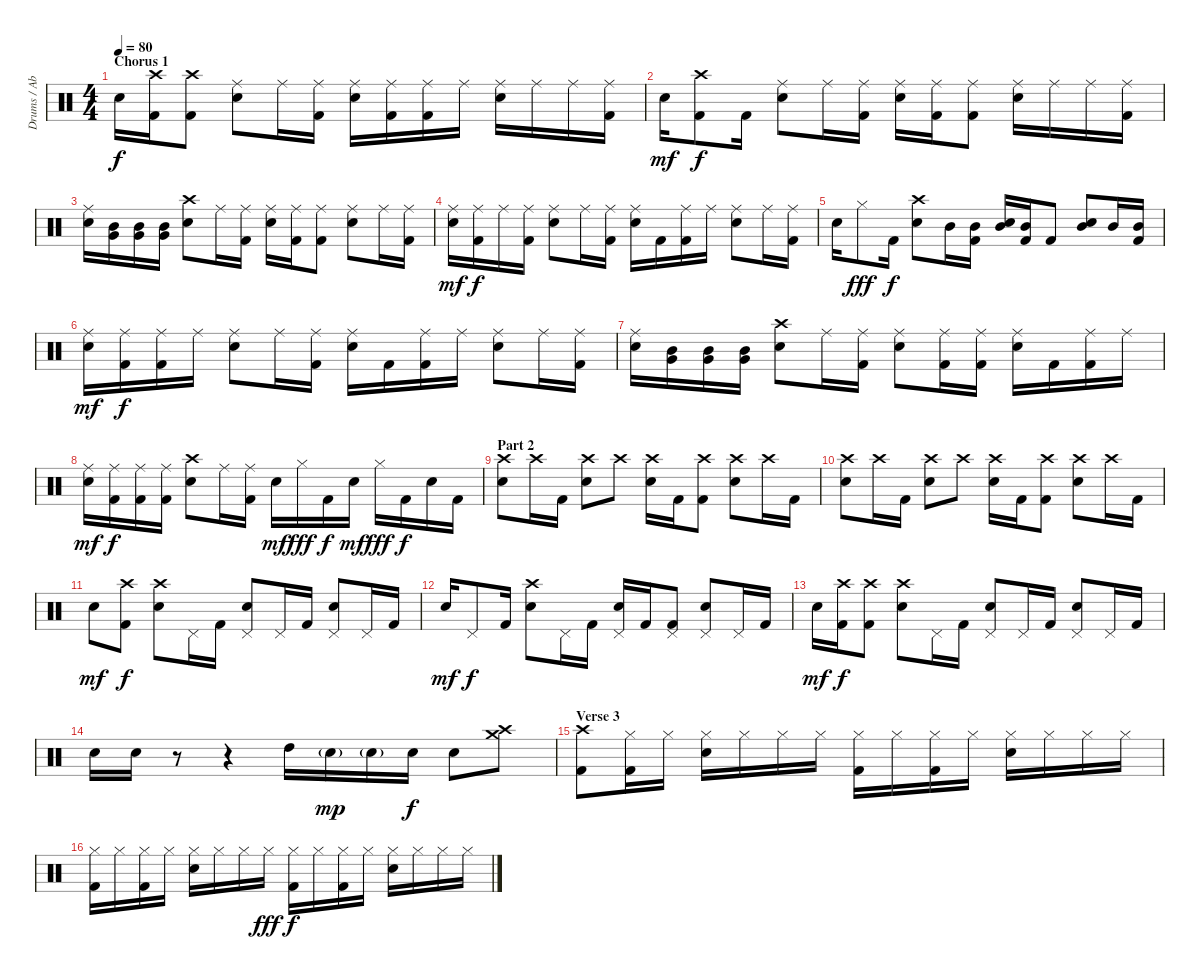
\track ("Drums / Abe Cunningham" "Drums / Ab") {instrument percussion}
\staff {score}
\articulation defaults
\ts (4 4)
\section ("" "Chorus 1")
\tempo 80
\clef neutral
\ks c "Electric Snare (hit)".16{dy f}
("Crash high (hit)" "Kick (hit) 2").16 ("Crash high (hit)" "Kick (hit) 2").8 ("Ride (middle)" "Electric Snare (hit)").8 "Ride (middle)".16 ("Ride (middle)" "Kick (hit) 2").16 ("Ride (middle)" "Electric Snare (hit)").16 ("Ride (middle)" "Kick (hit) 2").16 ("Ride (middle)" "Kick (hit) 2").16 "Ride (middle)".16 ("Ride (middle)" "Electric Snare (hit)").16 "Ride (middle)".16 "Ride (middle)".16 ("Ride (middle)" "Kick (hit) 2").16 |
"Electric Snare (hit)".16{dy mf} ("Crash high (hit)" "Kick (hit) 2").8{dy f} "Kick (hit) 2".16 ("Ride (middle)" "Electric Snare (hit)").8 "Ride (middle)".16 ("Ride (middle)" "Kick (hit) 2").16 ("Ride (middle)" "Electric Snare (hit)").16 ("Ride (middle)" "Kick (hit) 2").16 ("Ride (middle)" "Kick (hit) 2").8 ("Ride (middle)" "Electric Snare (hit)").16 "Ride (middle)".16 "Ride (middle)".16 ("Ride (middle)" "Kick (hit) 2").16 |
("Ride (middle)" "Electric Snare (hit)").16 ("Mid Tom (hit)" "Very Low Tom (hit)").16 ("Mid Tom (hit)" "Very Low Tom (hit)").16 ("Mid Tom (hit)" "Very Low Tom (hit)").16 ("Crash high (hit)" "Electric Snare (hit)").8 "Ride (middle)".16 ("Ride (middle)" "Kick (hit) 2").16 ("Ride (middle)" "Electric Snare (hit)").16 ("Ride (middle)" "Kick (hit) 2").16 ("Ride (middle)" "Kick (hit) 2").8 ("Ride (middle)" "Electric Snare (hit)").8 "Ride (middle)".16 ("Ride (middle)" "Kick (hit) 2").16 |
("Ride (middle)" "Electric Snare (hit)").16{dy mf} ("Ride (middle)" "Kick (hit) 2").16{dy f} "Ride (middle)".16 ("Ride (middle)" "Kick (hit) 2").16 ("Ride (middle)" "Electric Snare (hit)").8 "Ride (middle)".16 ("Ride (middle)" "Kick (hit) 2").16 ("Ride (middle)" "Electric Snare (hit)").16 "Kick (hit) 2".16 ("Ride (middle)" "Kick (hit) 2").16 "Ride (middle)".16 ("Ride (middle)" "Electric Snare (hit)").8 "Ride (middle)".16 ("Ride (middle)" "Kick (hit) 2").16 |
"Electric Snare (hit)".16 "Hi-Hat (closed)".8{dy fff} "Kick (hit) 2".16{dy f} ("Crash high (hit)" "Electric Snare (hit)").8 "Mid Tom (hit)".16 ("Mid Tom (hit)" "Kick (hit) 2").16 ("Electric Snare (hit)" "Mid Tom (hit)").16 ("Mid Tom (hit)" "Kick (hit) 2").16 "Kick (hit) 2".8 ("Electric Snare (hit)" "Mid Tom (hit)").8 "Mid Tom (hit)".16 ("Mid Tom (hit)" "Kick (hit) 2").16 |
("Ride (middle)" "Electric Snare (hit)").16{dy mf} ("Ride (middle)" "Kick (hit) 2").16{dy f} ("Ride (middle)" "Kick (hit) 2").16 "Ride (middle)".16 ("Ride (middle)" "Electric Snare (hit)").8 "Ride (middle)".16 ("Ride (middle)" "Kick (hit) 2").16 ("Ride (middle)" "Electric Snare (hit)").16 "Kick (hit) 2".16 ("Ride (middle)" "Kick (hit) 2").16 "Ride (middle)".16 ("Ride (middle)" "Electric Snare (hit)").8 "Ride (middle)".16 ("Ride (middle)" "Kick (hit) 2").16 |
("Ride (middle)" "Electric Snare (hit)").16 ("Mid Tom (hit)" "Very Low Tom (hit)").16 ("Mid Tom (hit)" "Very Low Tom (hit)").16 ("Mid Tom (hit)" "Very Low Tom (hit)").16 ("Crash high (hit)" "Electric Snare (hit)").8 "Ride (middle)".16 ("Ride (middle)" "Kick (hit) 2").16 ("Ride (middle)" "Electric Snare (hit)").8 ("Ride (middle)" "Kick (hit) 2").16 ("Ride (middle)" "Kick (hit) 2").16 ("Ride (middle)" "Electric Snare (hit)").16 "Kick (hit) 2".16 ("Ride (middle)" "Kick (hit) 2").16 "Ride (middle)".16 |
("Ride (middle)" "Electric Snare (hit)").16{dy mf} ("Ride (middle)" "Kick (hit) 2").16{dy f} ("Ride (middle)" "Kick (hit) 2").16 ("Ride (middle)" "Kick (hit) 2").16 ("Crash high (hit)" "Electric Snare (hit)").8 "Ride (middle)".16 ("Ride (middle)" "Kick (hit) 2").16 "Electric Snare (hit)".16{dy mf} "Hi-Hat (closed)".16{dy fff} "Kick (hit) 2".16{dy f} "Electric Snare (hit)".16{dy mf} "Hi-Hat (closed)".16{dy fff} "Kick (hit) 2".16{dy f} "Electric Snare (hit)".16 "Kick (hit) 2".16 |
\section ("" "Part 2")
("Crash high (hit)" "Electric Snare (hit)").8 "Crash high (hit)".16 "Kick (hit) 2".16 ("Crash high (hit)" "Electric Snare (hit)").8 "Crash high (hit)".8 ("Crash high (hit)" "Electric Snare (hit)").16 "Kick (hit) 2".16 ("Crash high (hit)" "Kick (hit) 2").8 ("Crash high (hit)" "Electric Snare (hit)").8 "Crash high (hit)".16 "Kick (hit) 2".16 |
("Crash high (hit)" "Electric Snare (hit)").8 "Crash high (hit)".16 "Kick (hit) 2".16 ("Crash high (hit)" "Electric Snare (hit)").8 "Crash high (hit)".8 ("Crash high (hit)" "Electric Snare (hit)").16 "Kick (hit) 2".16 ("Crash high (hit)" "Kick (hit) 2").8 ("Crash high (hit)" "Electric Snare (hit)").8 "Crash high (hit)".16 "Kick (hit) 2".16 |
"Electric Snare (hit)".8{dy mf} ("Crash high (hit)" "Kick (hit) 2").8{dy f} ("Crash high (hit)" "Electric Snare (hit)").8 "Pedal Hi-Hat (hit)".16 "Kick (hit) 2".16 ("Pedal Hi-Hat (hit)" "Electric Snare (hit)").8 "Pedal Hi-Hat (hit)".16 "Kick (hit) 2".16 ("Pedal Hi-Hat (hit)" "Electric Snare (hit)").8 "Pedal Hi-Hat (hit)".16 "Kick (hit) 2".16 |
"Electric Snare (hit)".16{dy mf} "Pedal Hi-Hat (hit)".8{dy f} "Kick (hit) 2".16 ("Crash high (hit)" "Electric Snare (hit)").8 "Pedal Hi-Hat (hit)".16 "Kick (hit) 2".16 ("Pedal Hi-Hat (hit)" "Electric Snare (hit)").16 "Kick (hit) 2".16 ("Pedal Hi-Hat (hit)" "Kick (hit) 2").8 ("Pedal Hi-Hat (hit)" "Electric Snare (hit)").8 "Pedal Hi-Hat (hit)".16 "Kick (hit) 2".16 |
"Electric Snare (hit)".16{dy mf} ("Crash high (hit)" "Kick (hit) 2").16{dy f} ("Crash high (hit)" "Kick (hit) 2").8 ("Crash high (hit)" "Electric Snare (hit)").8 "Pedal Hi-Hat (hit)".16 "Kick (hit) 2".16 ("Pedal Hi-Hat (hit)" "Electric Snare (hit)").8 "Pedal Hi-Hat (hit)".16 "Kick (hit) 2".16 ("Pedal Hi-Hat (hit)" "Electric Snare (hit)").8 "Pedal Hi-Hat (hit)".16 "Kick (hit) 2".16 |
"Electric Snare (hit)".16 "Electric Snare (hit)".16 r.8 r.4 "High Tom (hit)".16 "Electric Snare (hit)"{g}.16{dy mp} "Electric Snare (hit)"{g}.16 "Electric Snare (hit)".16{dy f} "Electric Snare (hit)".8 ("Crash medium (hit)" "Crash high (hit)").8 |
\section ("" "Verse 3")
("Crash high (hit)" "Kick (hit) 2").8 ("Hi-Hat (closed)" "Kick (hit) 2").16 "Hi-Hat (closed)".16 ("Hi-Hat (closed)" "Electric Snare (hit)").16 "Hi-Hat (closed)".16 "Hi-Hat (closed)".16 "Hi-Hat (closed)".16 ("Hi-Hat (closed)" "Kick (hit) 2").16 "Hi-Hat (closed)".16 ("Hi-Hat (closed)" "Kick (hit) 2").16 "Hi-Hat (closed)".16 ("Hi-Hat (closed)" "Electric Snare (hit)").16 "Hi-Hat (closed)".16 "Hi-Hat (closed)".16 "Hi-Hat (closed)".16 |
("Hi-Hat (closed)" "Kick (hit) 2").16 "Hi-Hat (closed)".16 ("Hi-Hat (closed)" "Kick (hit) 2").16 "Hi-Hat (closed)".16 ("Hi-Hat (closed)" "Electric Snare (hit)").16 "Hi-Hat (closed)".16 "Hi-Hat (closed)".16 "Hi-Hat (closed)".16{dy fff} ("Hi-Hat (closed)" "Kick (hit) 2").16{dy f} "Hi-Hat (closed)".16 ("Hi-Hat (closed)" "Kick (hit) 2").16 "Hi-Hat (closed)".16 ("Hi-Hat (closed)" "Electric Snare (hit)").16 "Hi-Hat (closed)".16 "Hi-Hat (closed)".16 "Hi-Hat (closed)".16
